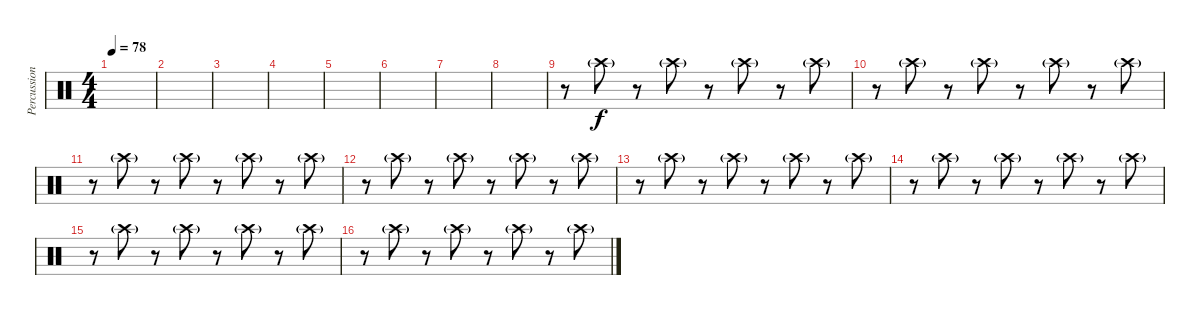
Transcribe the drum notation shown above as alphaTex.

\track ("Percussions" "Percussion") {instrument percussion}
\staff {score}
\articulation defaults
\ts (4 4)
\tempo 78
\clef neutral
\ks c
|
|
|
|
|
|
|
|
r.8 "Crash high (hit)"{g}.8 r.8 "Crash high (hit)"{g}.8 r.8 "Crash high (hit)"{g}.8 r.8 "Crash high (hit)"{g}.8 |
r.8 "Crash high (hit)"{g}.8 r.8 "Crash high (hit)"{g}.8 r.8 "Crash high (hit)"{g}.8 r.8 "Crash high (hit)"{g}.8 |
r.8 "Crash high (hit)"{g}.8 r.8 "Crash high (hit)"{g}.8 r.8 "Crash high (hit)"{g}.8 r.8 "Crash high (hit)"{g}.8 |
r.8 "Crash high (hit)"{g}.8 r.8 "Crash high (hit)"{g}.8 r.8 "Crash high (hit)"{g}.8 r.8 "Crash high (hit)"{g}.8 |
r.8 "Crash high (hit)"{g}.8 r.8 "Crash high (hit)"{g}.8 r.8 "Crash high (hit)"{g}.8 r.8 "Crash high (hit)"{g}.8 |
r.8 "Crash high (hit)"{g}.8 r.8 "Crash high (hit)"{g}.8 r.8 "Crash high (hit)"{g}.8 r.8 "Crash high (hit)"{g}.8 |
r.8 "Crash high (hit)"{g}.8 r.8 "Crash high (hit)"{g}.8 r.8 "Crash high (hit)"{g}.8 r.8 "Crash high (hit)"{g}.8 |
r.8 "Crash high (hit)"{g}.8 r.8 "Crash high (hit)"{g}.8 r.8 "Crash high (hit)"{g}.8 r.8 "Crash high (hit)"{g}.8
